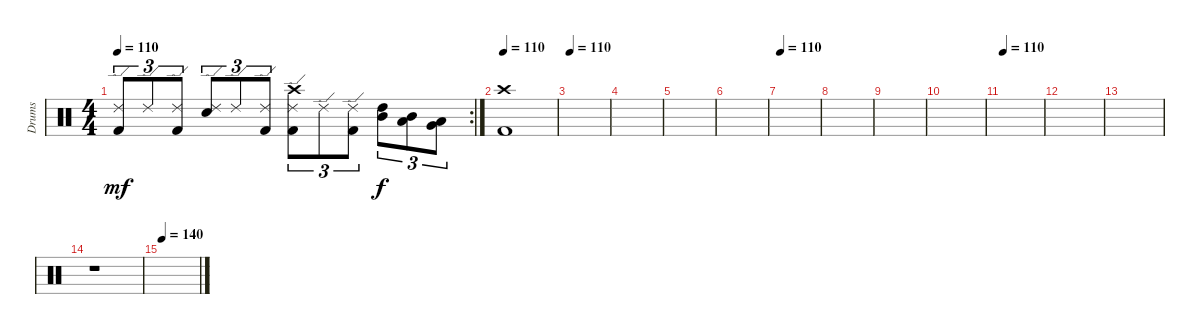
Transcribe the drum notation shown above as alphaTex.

\track ("Drums" "Drums") {instrument percussion}
\staff {score}
\articulation defaults
\rc 2
\ts (4 4)
\tempo 110
\clef neutral
\ks c
("Ride (edge) 2" "Kick (hit) 2").8{tu (3 2) dy mf} "Ride (edge) 2".8{tu (3 2)} ("Ride (edge) 2" "Kick (hit) 2").8{tu (3 2)} ("Ride (edge) 2" "Electric Snare (hit)").8{tu (3 2)} "Ride (edge) 2".8{tu (3 2)} ("Ride (edge) 2" "Kick (hit) 2").8{tu (3 2)} ("Ride (edge) 2" "Crash high (hit)" "Kick (hit) 2").8{tu (3 2)} "Ride (edge) 2".8{tu (3 2)} ("Ride (edge) 2" "Kick (hit) 2").8{tu (3 2)} ("High Tom (hit)" "Mid Tom (hit)").8{tu (3 2) dy f} ("Mid Tom (hit)" "Low Tom (hit)").8{tu (3 2)} ("Low Tom (hit)" "Very Low Tom (hit)").8{tu (3 2)} |
\tempo 110
("Crash high (hit)" "Kick (hit) 2").1{volume 0} |
\tempo 110
|
|
|
|
\tempo 110
|
|
|
|
\tempo 110
|
|
|
r.1 |
\tempo 140
